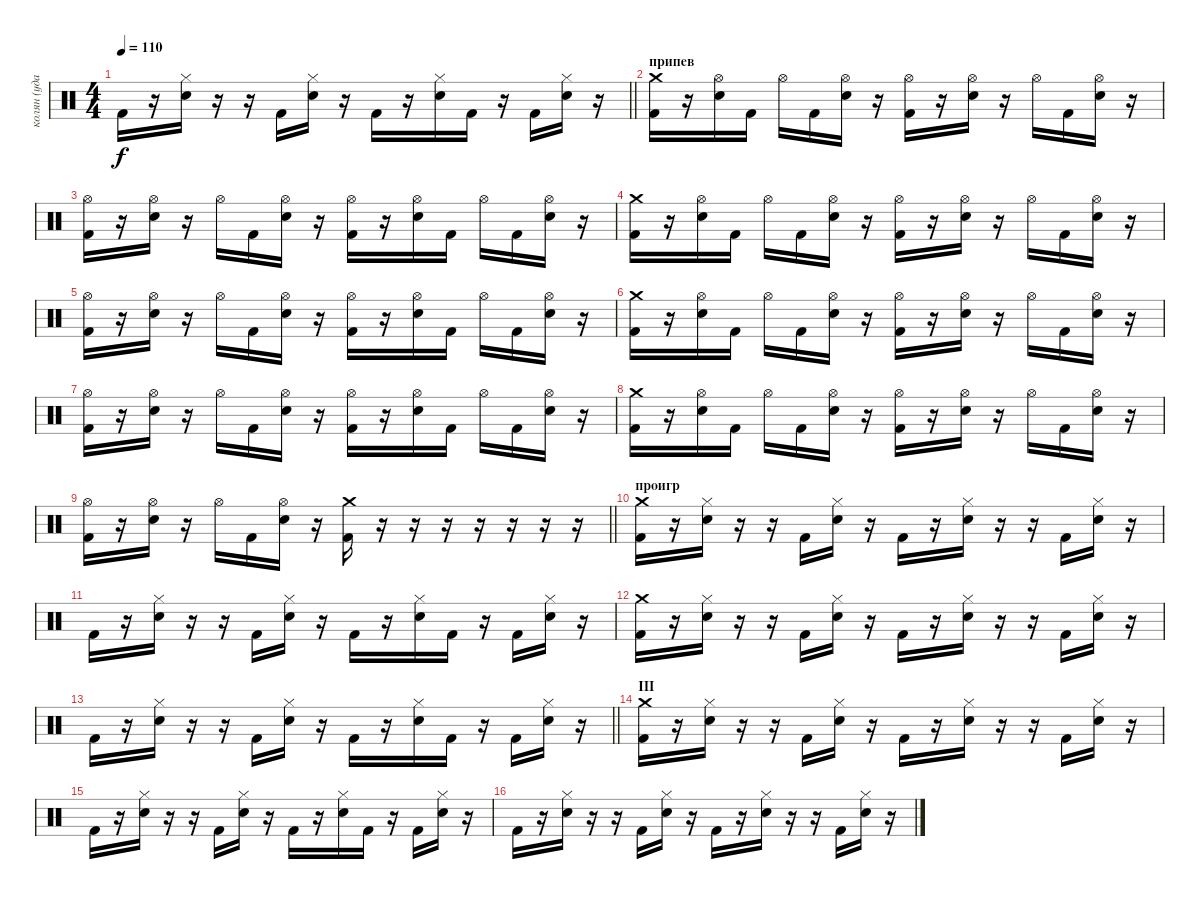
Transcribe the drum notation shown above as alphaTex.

\track ("колян (ударные)" "колян (уда") {instrument percussion}
\staff {score}
\articulation defaults
\ts (4 4)
\tempo 110
\clef neutral
\barLineRight lightlight
\ks c "Kick (hit) 2".16{dy f}
r.16 ("Snare (hit) 2" "Hi-Hat (closed)").16 r.16 r.16 "Kick (hit) 2".16 ("Snare (hit) 2" "Hi-Hat (closed)").16 r.16 "Kick (hit) 2".16 r.16 ("Snare (hit) 2" "Hi-Hat (closed)").16 "Kick (hit) 2".16 r.16 "Kick (hit) 2".16 ("Snare (hit) 2" "Hi-Hat (closed)").16 r.16 |
\section ("" "припев")
("Kick (hit) 2" "Crash medium (hit)").16 r.16 ("Snare (hit) 2" "Hi-Hat (open)").16 "Kick (hit) 2".16 "Hi-Hat (open)".16 "Kick (hit) 2".16 ("Snare (hit) 2" "Hi-Hat (open)").16 r.16 ("Kick (hit) 2" "Hi-Hat (open)").16 r.16 ("Snare (hit) 2" "Hi-Hat (open)").16 r.16 "Hi-Hat (open)".16 "Kick (hit) 2".16 ("Snare (hit) 2" "Hi-Hat (open)").16 r.16 |
("Kick (hit) 2" "Hi-Hat (open)").16 r.16 ("Snare (hit) 2" "Hi-Hat (open)").16 r.16 "Hi-Hat (open)".16 "Kick (hit) 2".16 ("Snare (hit) 2" "Hi-Hat (open)").16 r.16 ("Kick (hit) 2" "Hi-Hat (open)").16 r.16 ("Snare (hit) 2" "Hi-Hat (open)").16 "Kick (hit) 2".16 "Hi-Hat (open)".16 "Kick (hit) 2".16 ("Snare (hit) 2" "Hi-Hat (open)").16 r.16 |
("Kick (hit) 2" "Crash medium (hit)").16 r.16 ("Snare (hit) 2" "Hi-Hat (open)").16 "Kick (hit) 2".16 "Hi-Hat (open)".16 "Kick (hit) 2".16 ("Snare (hit) 2" "Hi-Hat (open)").16 r.16 ("Kick (hit) 2" "Hi-Hat (open)").16 r.16 ("Snare (hit) 2" "Hi-Hat (open)").16 r.16 "Hi-Hat (open)".16 "Kick (hit) 2".16 ("Snare (hit) 2" "Hi-Hat (open)").16 r.16 |
("Kick (hit) 2" "Hi-Hat (open)").16 r.16 ("Snare (hit) 2" "Hi-Hat (open)").16 r.16 "Hi-Hat (open)".16 "Kick (hit) 2".16 ("Snare (hit) 2" "Hi-Hat (open)").16 r.16 ("Kick (hit) 2" "Hi-Hat (open)").16 r.16 ("Snare (hit) 2" "Hi-Hat (open)").16 "Kick (hit) 2".16 "Hi-Hat (open)".16 "Kick (hit) 2".16 ("Snare (hit) 2" "Hi-Hat (open)").16 r.16 |
("Kick (hit) 2" "Crash medium (hit)").16 r.16 ("Snare (hit) 2" "Hi-Hat (open)").16 "Kick (hit) 2".16 "Hi-Hat (open)".16 "Kick (hit) 2".16 ("Snare (hit) 2" "Hi-Hat (open)").16 r.16 ("Kick (hit) 2" "Hi-Hat (open)").16 r.16 ("Snare (hit) 2" "Hi-Hat (open)").16 r.16 "Hi-Hat (open)".16 "Kick (hit) 2".16 ("Snare (hit) 2" "Hi-Hat (open)").16 r.16 |
("Kick (hit) 2" "Hi-Hat (open)").16 r.16 ("Snare (hit) 2" "Hi-Hat (open)").16 r.16 "Hi-Hat (open)".16 "Kick (hit) 2".16 ("Snare (hit) 2" "Hi-Hat (open)").16 r.16 ("Kick (hit) 2" "Hi-Hat (open)").16 r.16 ("Snare (hit) 2" "Hi-Hat (open)").16 "Kick (hit) 2".16 "Hi-Hat (open)".16 "Kick (hit) 2".16 ("Snare (hit) 2" "Hi-Hat (open)").16 r.16 |
("Kick (hit) 2" "Crash medium (hit)").16 r.16 ("Snare (hit) 2" "Hi-Hat (open)").16 "Kick (hit) 2".16 "Hi-Hat (open)".16 "Kick (hit) 2".16 ("Snare (hit) 2" "Hi-Hat (open)").16 r.16 ("Kick (hit) 2" "Hi-Hat (open)").16 r.16 ("Snare (hit) 2" "Hi-Hat (open)").16 r.16 "Hi-Hat (open)".16 "Kick (hit) 2".16 ("Snare (hit) 2" "Hi-Hat (open)").16 r.16 |
\barLineRight lightlight
("Kick (hit) 2" "Hi-Hat (open)").16 r.16 ("Snare (hit) 2" "Hi-Hat (open)").16 r.16 "Hi-Hat (open)".16 "Kick (hit) 2".16 ("Snare (hit) 2" "Hi-Hat (open)").16 r.16 ("Kick (hit) 2" "Crash medium (hit)").16 r.16 r.16 r.16 r.16 r.16 r.16 r.16 |
\section ("" "проигр")
("Kick (hit) 2" "Crash medium (hit)").16 r.16 ("Snare (hit) 2" "Hi-Hat (closed)").16 r.16 r.16 "Kick (hit) 2".16 ("Snare (hit) 2" "Hi-Hat (closed)").16 r.16 "Kick (hit) 2".16 r.16 ("Snare (hit) 2" "Hi-Hat (closed)").16 r.16 r.16 "Kick (hit) 2".16 ("Snare (hit) 2" "Hi-Hat (closed)").16 r.16 |
"Kick (hit) 2".16 r.16 ("Snare (hit) 2" "Hi-Hat (closed)").16 r.16 r.16 "Kick (hit) 2".16 ("Snare (hit) 2" "Hi-Hat (closed)").16 r.16 "Kick (hit) 2".16 r.16 ("Snare (hit) 2" "Hi-Hat (closed)").16 "Kick (hit) 2".16 r.16 "Kick (hit) 2".16 ("Snare (hit) 2" "Hi-Hat (closed)").16 r.16 |
("Kick (hit) 2" "Crash medium (hit)").16 r.16 ("Snare (hit) 2" "Hi-Hat (closed)").16 r.16 r.16 "Kick (hit) 2".16 ("Snare (hit) 2" "Hi-Hat (closed)").16 r.16 "Kick (hit) 2".16 r.16 ("Snare (hit) 2" "Hi-Hat (closed)").16 r.16 r.16 "Kick (hit) 2".16 ("Snare (hit) 2" "Hi-Hat (closed)").16 r.16 |
\barLineRight lightlight "Kick (hit) 2".16
r.16 ("Snare (hit) 2" "Hi-Hat (closed)").16 r.16 r.16 "Kick (hit) 2".16 ("Snare (hit) 2" "Hi-Hat (closed)").16 r.16 "Kick (hit) 2".16 r.16 ("Snare (hit) 2" "Hi-Hat (closed)").16 "Kick (hit) 2".16 r.16 "Kick (hit) 2".16 ("Snare (hit) 2" "Hi-Hat (closed)").16 r.16 |
\section ("" "III")
("Kick (hit) 2" "Crash medium (hit)").16 r.16 ("Snare (hit) 2" "Hi-Hat (closed)").16 r.16 r.16 "Kick (hit) 2".16 ("Snare (hit) 2" "Hi-Hat (closed)").16 r.16 "Kick (hit) 2".16 r.16 ("Snare (hit) 2" "Hi-Hat (closed)").16 r.16 r.16 "Kick (hit) 2".16 ("Snare (hit) 2" "Hi-Hat (closed)").16 r.16 |
"Kick (hit) 2".16 r.16 ("Snare (hit) 2" "Hi-Hat (closed)").16 r.16 r.16 "Kick (hit) 2".16 ("Snare (hit) 2" "Hi-Hat (closed)").16 r.16 "Kick (hit) 2".16 r.16 ("Snare (hit) 2" "Hi-Hat (closed)").16 "Kick (hit) 2".16 r.16 "Kick (hit) 2".16 ("Snare (hit) 2" "Hi-Hat (closed)").16 r.16 |
"Kick (hit) 2".16 r.16 ("Snare (hit) 2" "Hi-Hat (closed)").16 r.16 r.16 "Kick (hit) 2".16 ("Snare (hit) 2" "Hi-Hat (closed)").16 r.16 "Kick (hit) 2".16 r.16 ("Snare (hit) 2" "Hi-Hat (closed)").16 r.16 r.16 "Kick (hit) 2".16 ("Snare (hit) 2" "Hi-Hat (closed)").16 r.16
